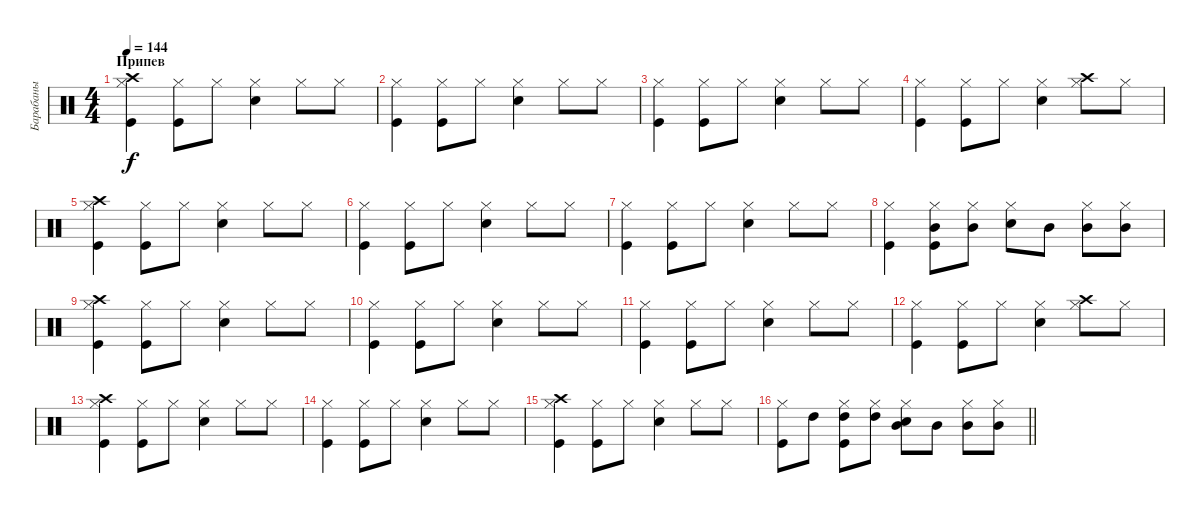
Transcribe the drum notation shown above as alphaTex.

\track ("Барабаны" "Барабаны") {instrument percussion}
\staff {score}
\articulation defaults
\ts (4 4)
\section ("" "Припев")
\tempo 144
\clef neutral
\ks c
("Kick (hit)" "Hi-Hat (closed)" "Crash high (hit)").4{dy f} ("Kick (hit)" "Hi-Hat (closed)").8 "Hi-Hat (closed)".8 ("Snare (hit) 2" "Hi-Hat (closed)").4 "Hi-Hat (closed)".8 "Hi-Hat (closed)".8 |
("Kick (hit)" "Hi-Hat (closed)").4 ("Kick (hit)" "Hi-Hat (closed)").8 "Hi-Hat (closed)".8 ("Snare (hit) 2" "Hi-Hat (closed)").4 "Hi-Hat (closed)".8 "Hi-Hat (closed)".8 |
("Kick (hit)" "Hi-Hat (closed)").4 ("Kick (hit)" "Hi-Hat (closed)").8 "Hi-Hat (closed)".8 ("Snare (hit) 2" "Hi-Hat (closed)").4 "Hi-Hat (closed)".8 "Hi-Hat (closed)".8 |
("Kick (hit)" "Hi-Hat (closed)").4 ("Kick (hit)" "Hi-Hat (closed)").8 "Hi-Hat (closed)".8 ("Snare (hit) 2" "Hi-Hat (closed)").4 ("Hi-Hat (closed)" "Crash high (hit)").8 "Hi-Hat (closed)".8 |
("Kick (hit)" "Hi-Hat (closed)" "Crash high (hit)").4 ("Kick (hit)" "Hi-Hat (closed)").8 "Hi-Hat (closed)".8 ("Snare (hit) 2" "Hi-Hat (closed)").4 "Hi-Hat (closed)".8 "Hi-Hat (closed)".8 |
("Kick (hit)" "Hi-Hat (closed)").4 ("Kick (hit)" "Hi-Hat (closed)").8 "Hi-Hat (closed)".8 ("Snare (hit) 2" "Hi-Hat (closed)").4 "Hi-Hat (closed)".8 "Hi-Hat (closed)".8 |
("Kick (hit)" "Hi-Hat (closed)").4 ("Kick (hit)" "Hi-Hat (closed)").8 "Hi-Hat (closed)".8 ("Snare (hit) 2" "Hi-Hat (closed)").4 "Hi-Hat (closed)".8 "Hi-Hat (closed)".8 |
("Kick (hit)" "Hi-Hat (closed)").4 ("Kick (hit)" "Hi-Hat (closed)" "Mid Tom (hit)").8 ("Hi-Hat (closed)" "Mid Tom (hit)").8 ("Snare (hit) 2" "Hi-Hat (closed)").8 "Mid Tom (hit)".8 ("Hi-Hat (closed)" "Mid Tom (hit)").8 ("Hi-Hat (closed)" "Mid Tom (hit)").8 |
("Kick (hit)" "Hi-Hat (closed)" "Crash high (hit)").4 ("Kick (hit)" "Hi-Hat (closed)").8 "Hi-Hat (closed)".8 ("Snare (hit) 2" "Hi-Hat (closed)").4 "Hi-Hat (closed)".8 "Hi-Hat (closed)".8 |
("Kick (hit)" "Hi-Hat (closed)").4 ("Kick (hit)" "Hi-Hat (closed)").8 "Hi-Hat (closed)".8 ("Snare (hit) 2" "Hi-Hat (closed)").4 "Hi-Hat (closed)".8 "Hi-Hat (closed)".8 |
("Kick (hit)" "Hi-Hat (closed)").4 ("Kick (hit)" "Hi-Hat (closed)").8 "Hi-Hat (closed)".8 ("Snare (hit) 2" "Hi-Hat (closed)").4 "Hi-Hat (closed)".8 "Hi-Hat (closed)".8 |
("Kick (hit)" "Hi-Hat (closed)").4 ("Kick (hit)" "Hi-Hat (closed)").8 "Hi-Hat (closed)".8 ("Snare (hit) 2" "Hi-Hat (closed)").4 ("Hi-Hat (closed)" "Crash high (hit)").8 "Hi-Hat (closed)".8 |
("Kick (hit)" "Hi-Hat (closed)" "Crash high (hit)").4 ("Kick (hit)" "Hi-Hat (closed)").8 "Hi-Hat (closed)".8 ("Snare (hit) 2" "Hi-Hat (closed)").4 "Hi-Hat (closed)".8 "Hi-Hat (closed)".8 |
("Kick (hit)" "Hi-Hat (closed)").4 ("Kick (hit)" "Hi-Hat (closed)").8 "Hi-Hat (closed)".8 ("Snare (hit) 2" "Hi-Hat (closed)").4 "Hi-Hat (closed)".8 "Hi-Hat (closed)".8 |
("Kick (hit)" "Hi-Hat (closed)" "Crash high (hit)").4 ("Kick (hit)" "Hi-Hat (closed)").8 "Hi-Hat (closed)".8 ("Snare (hit) 2" "Hi-Hat (closed)").4 "Hi-Hat (closed)".8 "Hi-Hat (closed)".8 |
\barLineRight lightlight
("Kick (hit)" "Hi-Hat (closed)").8 "High Tom (hit)".8 ("Kick (hit)" "Hi-Hat (closed)" "High Tom (hit)").8 ("Hi-Hat (closed)" "High Tom (hit)").8 ("Snare (hit) 2" "Hi-Hat (closed)" "Mid Tom (hit)").8 "Mid Tom (hit)".8 ("Hi-Hat (closed)" "Mid Tom (hit)").8 ("Hi-Hat (closed)" "Mid Tom (hit)").8
